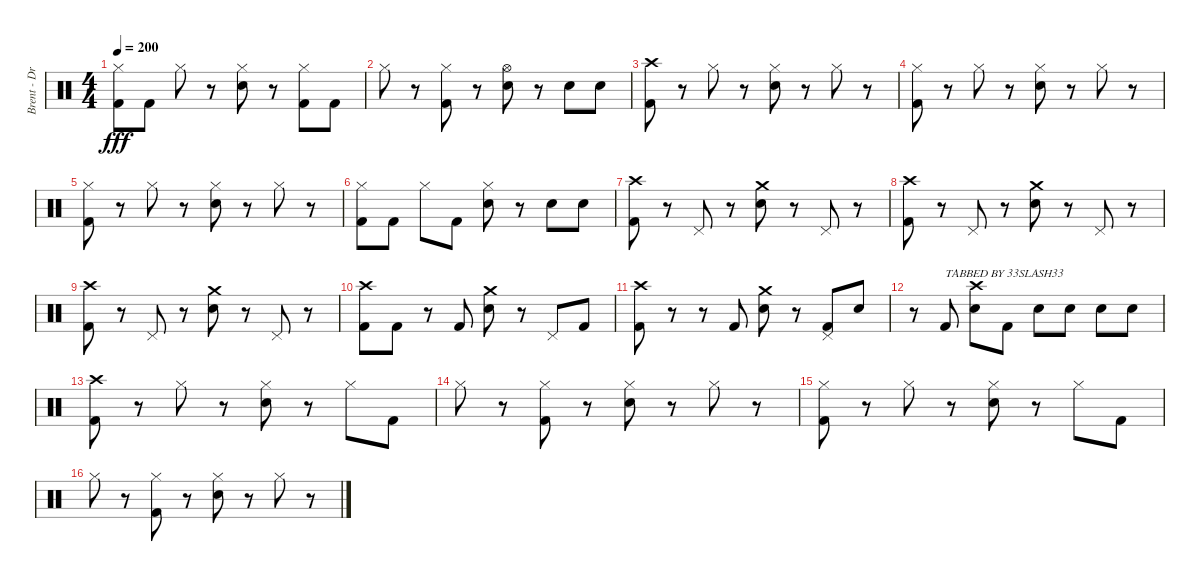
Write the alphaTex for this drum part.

\track ("Brent - Drums" "Brent - Dr") {instrument percussion}
\staff {score}
\articulation defaults
\ts (4 4)
\tempo 200
\clef neutral
\ks c
("Hi-Hat (closed)" "Kick (hit) 2").8{dy fff} "Kick (hit) 2".8 "Hi-Hat (closed)".8 r.8 ("Hi-Hat (closed)" "Snare (hit) 2").8 r.8 ("Hi-Hat (closed)" "Kick (hit) 2").8 "Kick (hit) 2".8 |
"Hi-Hat (closed)".8 r.8 ("Hi-Hat (closed)" "Kick (hit) 2").8 r.8 ("Hi-Hat (open)" "Snare (hit) 2").8 r.8 "Snare (hit) 2".8 "Snare (hit) 2".8 |
("Crash high (hit)" "Kick (hit) 2").8 r.8 "Hi-Hat (closed)".8 r.8 ("Hi-Hat (closed)" "Snare (hit) 2").8 r.8 "Hi-Hat (closed)".8 r.8 |
("Hi-Hat (closed)" "Kick (hit) 2").8 r.8 "Hi-Hat (closed)".8 r.8 ("Hi-Hat (closed)" "Snare (hit) 2").8 r.8 "Hi-Hat (closed)".8 r.8 |
("Hi-Hat (closed)" "Kick (hit) 2").8 r.8 "Hi-Hat (closed)".8 r.8 ("Hi-Hat (closed)" "Snare (hit) 2").8 r.8 "Hi-Hat (closed)".8 r.8 |
("Hi-Hat (closed)" "Kick (hit) 2").8 "Kick (hit) 2".8 "Hi-Hat (closed)".8 "Kick (hit) 2".8 ("Hi-Hat (closed)" "Snare (hit) 2").8 r.8 "Snare (hit) 2".8 "Snare (hit) 2".8 |
("Crash high (hit)" "Kick (hit) 2").8 r.8 "Pedal Hi-Hat (hit)".8 r.8 ("Crash medium (hit)" "Snare (hit) 2").8 r.8 "Pedal Hi-Hat (hit)".8 r.8 |
("Crash high (hit)" "Kick (hit) 2").8 r.8 "Pedal Hi-Hat (hit)".8 r.8 ("Crash medium (hit)" "Snare (hit) 2").8 r.8 "Pedal Hi-Hat (hit)".8 r.8 |
("Crash high (hit)" "Kick (hit) 2").8 r.8 "Pedal Hi-Hat (hit)".8 r.8 ("Crash medium (hit)" "Snare (hit) 2").8 r.8 "Pedal Hi-Hat (hit)".8 r.8 |
("Crash high (hit)" "Kick (hit) 2").8 "Kick (hit) 2".8 r.8 "Kick (hit) 2".8 ("Crash medium (hit)" "Snare (hit) 2").8 r.8 "Pedal Hi-Hat (hit)".8 "Kick (hit) 2".8 |
("Crash high (hit)" "Kick (hit) 2").8 r.8 r.8 "Kick (hit) 2".8 ("Crash medium (hit)" "Snare (hit) 2").8 r.8 ("Pedal Hi-Hat (hit)" "Kick (hit) 2").8 "Snare (hit) 2".8 |
r.8 "Kick (hit) 2".8{txt "TABBED BY 33SLASH33"} ("Crash high (hit)" "Snare (hit) 2").8 "Kick (hit) 2".8 "Snare (hit) 2".8 "Snare (hit) 2".8 "Snare (hit) 2".8 "Snare (hit) 2".8 |
("Crash high (hit)" "Kick (hit) 2").8 r.8 "Hi-Hat (closed)".8 r.8 ("Hi-Hat (closed)" "Snare (hit) 2").8 r.8 "Hi-Hat (closed)".8 "Kick (hit) 2".8 |
"Hi-Hat (closed)".8 r.8 ("Hi-Hat (closed)" "Kick (hit) 2").8 r.8 ("Hi-Hat (closed)" "Snare (hit) 2").8 r.8 "Hi-Hat (closed)".8 r.8 |
("Hi-Hat (closed)" "Kick (hit) 2").8 r.8 "Hi-Hat (closed)".8 r.8 ("Hi-Hat (closed)" "Snare (hit) 2").8 r.8 "Hi-Hat (closed)".8 "Kick (hit) 2".8 |
"Hi-Hat (closed)".8 r.8 ("Hi-Hat (closed)" "Kick (hit) 2").8 r.8 ("Hi-Hat (closed)" "Snare (hit) 2").8 r.8 "Hi-Hat (closed)".8 r.8
